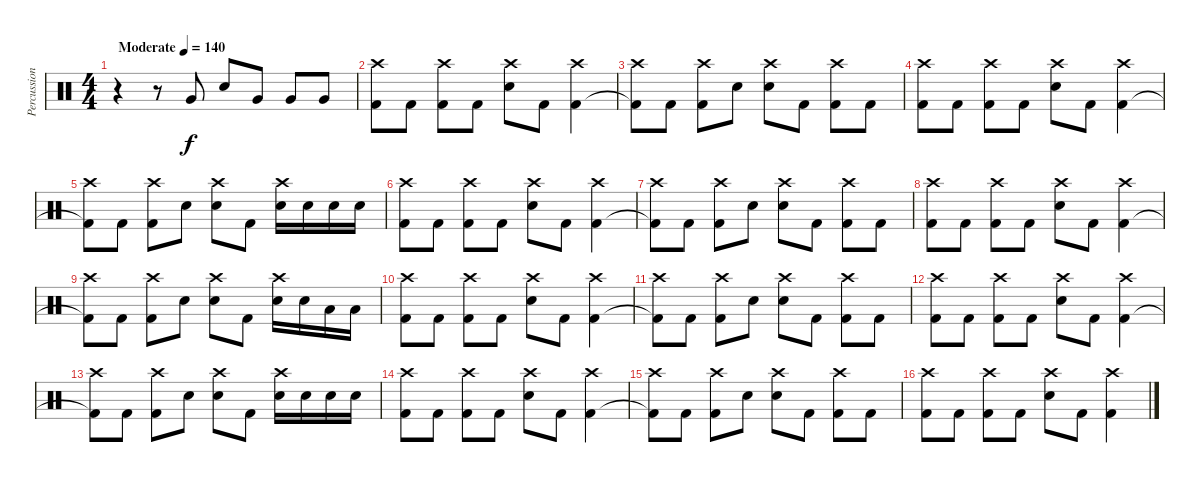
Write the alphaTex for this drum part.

\track ("Percussions" "Percussion") {instrument percussion}
\staff {score}
\articulation defaults
\ts (4 4)
\tempo (140 "Moderate")
\clef neutral
\ks c
r.4{dy f} r.8 "Very Low Tom (hit)".8 "Electric Snare (hit)".8 "Very Low Tom (hit)".8 "Very Low Tom (hit)".8 "Very Low Tom (hit)".8 |
("Crash high (hit)" "Kick (hit) 2").8 "Kick (hit) 2".8 ("Crash high (hit)" "Kick (hit) 2").8 "Kick (hit) 2".8 ("Crash high (hit)" "Electric Snare (hit)").8 "Kick (hit) 2".8 ("Crash high (hit)" "Kick (hit) 2").4 |
("Crash high (hit)" "Kick (hit) 2"{t}).8 "Kick (hit) 2".8 ("Crash high (hit)" "Kick (hit) 2").8 "Electric Snare (hit)".8 ("Crash high (hit)" "Electric Snare (hit)").8 "Kick (hit) 2".8 ("Crash high (hit)" "Kick (hit) 2").8 "Kick (hit) 2".8 |
("Crash high (hit)" "Kick (hit) 2").8 "Kick (hit) 2".8 ("Crash high (hit)" "Kick (hit) 2").8 "Kick (hit) 2".8 ("Crash high (hit)" "Electric Snare (hit)").8 "Kick (hit) 2".8 ("Crash high (hit)" "Kick (hit) 2").4 |
("Crash high (hit)" "Kick (hit) 2"{t}).8 "Kick (hit) 2".8 ("Crash high (hit)" "Kick (hit) 2").8 "Electric Snare (hit)".8 ("Crash high (hit)" "Electric Snare (hit)").8 "Kick (hit) 2".8 ("Crash high (hit)" "Electric Snare (hit)").16 "Electric Snare (hit)".16 "Electric Snare (hit)".16 "Electric Snare (hit)".16 |
("Crash high (hit)" "Kick (hit) 2").8 "Kick (hit) 2".8 ("Crash high (hit)" "Kick (hit) 2").8 "Kick (hit) 2".8 ("Crash high (hit)" "Electric Snare (hit)").8 "Kick (hit) 2".8 ("Crash high (hit)" "Kick (hit) 2").4 |
("Crash high (hit)" "Kick (hit) 2"{t}).8 "Kick (hit) 2".8 ("Crash high (hit)" "Kick (hit) 2").8 "Electric Snare (hit)".8 ("Crash high (hit)" "Electric Snare (hit)").8 "Kick (hit) 2".8 ("Crash high (hit)" "Kick (hit) 2").8 "Kick (hit) 2".8 |
("Crash high (hit)" "Kick (hit) 2").8 "Kick (hit) 2".8 ("Crash high (hit)" "Kick (hit) 2").8 "Kick (hit) 2".8 ("Crash high (hit)" "Electric Snare (hit)").8 "Kick (hit) 2".8 ("Crash high (hit)" "Kick (hit) 2").4 |
("Crash high (hit)" "Kick (hit) 2"{t}).8 "Kick (hit) 2".8 ("Crash high (hit)" "Kick (hit) 2").8 "Electric Snare (hit)".8 ("Crash high (hit)" "Electric Snare (hit)").8 "Kick (hit) 2".8 ("Crash high (hit)" "Electric Snare (hit)").16 "Electric Snare (hit)".16 "Low Tom (hit)".16 "Low Tom (hit)".16 |
("Crash high (hit)" "Kick (hit) 2").8 "Kick (hit) 2".8 ("Crash high (hit)" "Kick (hit) 2").8 "Kick (hit) 2".8 ("Crash high (hit)" "Electric Snare (hit)").8 "Kick (hit) 2".8 ("Crash high (hit)" "Kick (hit) 2").4 |
("Crash high (hit)" "Kick (hit) 2"{t}).8 "Kick (hit) 2".8 ("Crash high (hit)" "Kick (hit) 2").8 "Electric Snare (hit)".8 ("Crash high (hit)" "Electric Snare (hit)").8 "Kick (hit) 2".8 ("Crash high (hit)" "Kick (hit) 2").8 "Kick (hit) 2".8 |
("Crash high (hit)" "Kick (hit) 2").8 "Kick (hit) 2".8 ("Crash high (hit)" "Kick (hit) 2").8 "Kick (hit) 2".8 ("Crash high (hit)" "Electric Snare (hit)").8 "Kick (hit) 2".8 ("Crash high (hit)" "Kick (hit) 2").4 |
("Crash high (hit)" "Kick (hit) 2"{t}).8 "Kick (hit) 2".8 ("Crash high (hit)" "Kick (hit) 2").8 "Electric Snare (hit)".8 ("Crash high (hit)" "Electric Snare (hit)").8 "Kick (hit) 2".8 ("Crash high (hit)" "Electric Snare (hit)").16 "Electric Snare (hit)".16 "Electric Snare (hit)".16 "Electric Snare (hit)".16 |
("Crash high (hit)" "Kick (hit) 2").8 "Kick (hit) 2".8 ("Crash high (hit)" "Kick (hit) 2").8 "Kick (hit) 2".8 ("Crash high (hit)" "Electric Snare (hit)").8 "Kick (hit) 2".8 ("Crash high (hit)" "Kick (hit) 2").4 |
("Crash high (hit)" "Kick (hit) 2"{t}).8 "Kick (hit) 2".8 ("Crash high (hit)" "Kick (hit) 2").8 "Electric Snare (hit)".8 ("Crash high (hit)" "Electric Snare (hit)").8 "Kick (hit) 2".8 ("Crash high (hit)" "Kick (hit) 2").8 "Kick (hit) 2".8 |
("Crash high (hit)" "Kick (hit) 2").8 "Kick (hit) 2".8 ("Crash high (hit)" "Kick (hit) 2").8 "Kick (hit) 2".8 ("Crash high (hit)" "Electric Snare (hit)").8 "Kick (hit) 2".8 ("Crash high (hit)" "Kick (hit) 2").4
